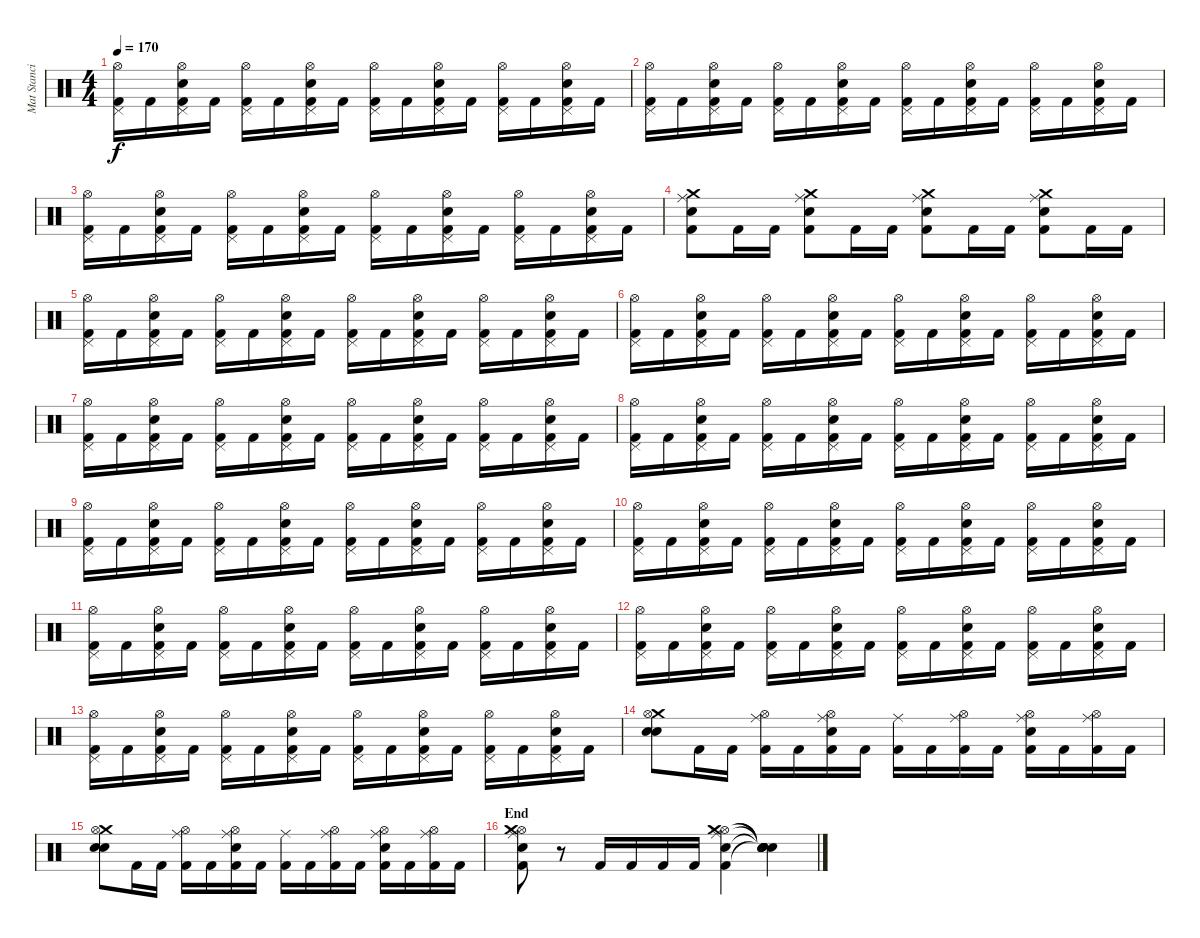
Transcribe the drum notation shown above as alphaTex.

\track ("Mat Stancioiu" "Mat Stanci") {instrument percussion}
\staff {score}
\articulation defaults
\ts (4 4)
\tempo 170
\clef neutral
\ks c
("Hi-Hat (open)" "Kick (hit) 2" "Pedal Hi-Hat (hit)").16{dy f} "Kick (hit) 2".16 ("Electric Snare (hit)" "Hi-Hat (open)" "Kick (hit) 2" "Pedal Hi-Hat (hit)").16 "Kick (hit) 2".16 ("Hi-Hat (open)" "Kick (hit) 2" "Pedal Hi-Hat (hit)").16 "Kick (hit) 2".16 ("Electric Snare (hit)" "Hi-Hat (open)" "Kick (hit) 2" "Pedal Hi-Hat (hit)").16 "Kick (hit) 2".16 ("Hi-Hat (open)" "Kick (hit) 2" "Pedal Hi-Hat (hit)").16 "Kick (hit) 2".16 ("Electric Snare (hit)" "Hi-Hat (open)" "Kick (hit) 2" "Pedal Hi-Hat (hit)").16 "Kick (hit) 2".16 ("Hi-Hat (open)" "Kick (hit) 2" "Pedal Hi-Hat (hit)").16 "Kick (hit) 2".16 ("Electric Snare (hit)" "Hi-Hat (open)" "Kick (hit) 2" "Pedal Hi-Hat (hit)").16 "Kick (hit) 2".16 |
("Hi-Hat (open)" "Kick (hit) 2" "Pedal Hi-Hat (hit)").16 "Kick (hit) 2".16 ("Electric Snare (hit)" "Hi-Hat (open)" "Kick (hit) 2" "Pedal Hi-Hat (hit)").16 "Kick (hit) 2".16 ("Hi-Hat (open)" "Kick (hit) 2" "Pedal Hi-Hat (hit)").16 "Kick (hit) 2".16 ("Electric Snare (hit)" "Hi-Hat (open)" "Kick (hit) 2" "Pedal Hi-Hat (hit)").16 "Kick (hit) 2".16 ("Hi-Hat (open)" "Kick (hit) 2" "Pedal Hi-Hat (hit)").16 "Kick (hit) 2".16 ("Electric Snare (hit)" "Hi-Hat (open)" "Kick (hit) 2" "Pedal Hi-Hat (hit)").16 "Kick (hit) 2".16 ("Hi-Hat (open)" "Kick (hit) 2" "Pedal Hi-Hat (hit)").16 "Kick (hit) 2".16 ("Electric Snare (hit)" "Hi-Hat (open)" "Kick (hit) 2" "Pedal Hi-Hat (hit)").16 "Kick (hit) 2".16 |
("Hi-Hat (open)" "Kick (hit) 2" "Pedal Hi-Hat (hit)").16 "Kick (hit) 2".16 ("Electric Snare (hit)" "Hi-Hat (open)" "Kick (hit) 2" "Pedal Hi-Hat (hit)").16 "Kick (hit) 2".16 ("Hi-Hat (open)" "Kick (hit) 2" "Pedal Hi-Hat (hit)").16 "Kick (hit) 2".16 ("Electric Snare (hit)" "Hi-Hat (open)" "Kick (hit) 2" "Pedal Hi-Hat (hit)").16 "Kick (hit) 2".16 ("Hi-Hat (open)" "Kick (hit) 2" "Pedal Hi-Hat (hit)").16 "Kick (hit) 2".16 ("Electric Snare (hit)" "Hi-Hat (open)" "Kick (hit) 2" "Pedal Hi-Hat (hit)").16 "Kick (hit) 2".16 ("Hi-Hat (open)" "Kick (hit) 2" "Pedal Hi-Hat (hit)").16 "Kick (hit) 2".16 ("Electric Snare (hit)" "Hi-Hat (open)" "Kick (hit) 2" "Pedal Hi-Hat (hit)").16 "Kick (hit) 2".16 |
("Electric Snare (hit)" "Kick (hit) 2" "Crash medium (hit)" "Ride (middle)").8 "Kick (hit) 2".16 "Kick (hit) 2".16 ("Electric Snare (hit)" "Kick (hit) 2" "Crash medium (hit)" "Ride (middle)").8 "Kick (hit) 2".16 "Kick (hit) 2".16 ("Electric Snare (hit)" "Kick (hit) 2" "Crash medium (hit)" "Ride (middle)").8 "Kick (hit) 2".16 "Kick (hit) 2".16 ("Electric Snare (hit)" "Kick (hit) 2" "Crash medium (hit)" "Ride (middle)").8 "Kick (hit) 2".16 "Kick (hit) 2".16 |
("Hi-Hat (open)" "Kick (hit) 2" "Pedal Hi-Hat (hit)").16 "Kick (hit) 2".16 ("Electric Snare (hit)" "Hi-Hat (open)" "Kick (hit) 2" "Pedal Hi-Hat (hit)").16 "Kick (hit) 2".16 ("Hi-Hat (open)" "Kick (hit) 2" "Pedal Hi-Hat (hit)").16 "Kick (hit) 2".16 ("Electric Snare (hit)" "Hi-Hat (open)" "Kick (hit) 2" "Pedal Hi-Hat (hit)").16 "Kick (hit) 2".16 ("Hi-Hat (open)" "Kick (hit) 2" "Pedal Hi-Hat (hit)").16 "Kick (hit) 2".16 ("Electric Snare (hit)" "Hi-Hat (open)" "Kick (hit) 2" "Pedal Hi-Hat (hit)").16 "Kick (hit) 2".16 ("Hi-Hat (open)" "Kick (hit) 2" "Pedal Hi-Hat (hit)").16 "Kick (hit) 2".16 ("Electric Snare (hit)" "Hi-Hat (open)" "Kick (hit) 2" "Pedal Hi-Hat (hit)").16 "Kick (hit) 2".16 |
("Hi-Hat (open)" "Kick (hit) 2" "Pedal Hi-Hat (hit)").16 "Kick (hit) 2".16 ("Electric Snare (hit)" "Hi-Hat (open)" "Kick (hit) 2" "Pedal Hi-Hat (hit)").16 "Kick (hit) 2".16 ("Hi-Hat (open)" "Kick (hit) 2" "Pedal Hi-Hat (hit)").16 "Kick (hit) 2".16 ("Electric Snare (hit)" "Hi-Hat (open)" "Kick (hit) 2" "Pedal Hi-Hat (hit)").16 "Kick (hit) 2".16 ("Hi-Hat (open)" "Kick (hit) 2" "Pedal Hi-Hat (hit)").16 "Kick (hit) 2".16 ("Electric Snare (hit)" "Hi-Hat (open)" "Kick (hit) 2" "Pedal Hi-Hat (hit)").16 "Kick (hit) 2".16 ("Hi-Hat (open)" "Kick (hit) 2" "Pedal Hi-Hat (hit)").16 "Kick (hit) 2".16 ("Electric Snare (hit)" "Hi-Hat (open)" "Kick (hit) 2" "Pedal Hi-Hat (hit)").16 "Kick (hit) 2".16 |
("Hi-Hat (open)" "Kick (hit) 2" "Pedal Hi-Hat (hit)").16 "Kick (hit) 2".16 ("Electric Snare (hit)" "Hi-Hat (open)" "Kick (hit) 2" "Pedal Hi-Hat (hit)").16 "Kick (hit) 2".16 ("Hi-Hat (open)" "Kick (hit) 2" "Pedal Hi-Hat (hit)").16 "Kick (hit) 2".16 ("Electric Snare (hit)" "Hi-Hat (open)" "Kick (hit) 2" "Pedal Hi-Hat (hit)").16 "Kick (hit) 2".16 ("Hi-Hat (open)" "Kick (hit) 2" "Pedal Hi-Hat (hit)").16 "Kick (hit) 2".16 ("Electric Snare (hit)" "Hi-Hat (open)" "Kick (hit) 2" "Pedal Hi-Hat (hit)").16 "Kick (hit) 2".16 ("Hi-Hat (open)" "Kick (hit) 2" "Pedal Hi-Hat (hit)").16 "Kick (hit) 2".16 ("Electric Snare (hit)" "Hi-Hat (open)" "Kick (hit) 2" "Pedal Hi-Hat (hit)").16 "Kick (hit) 2".16 |
("Hi-Hat (open)" "Kick (hit) 2" "Pedal Hi-Hat (hit)").16 "Kick (hit) 2".16 ("Electric Snare (hit)" "Hi-Hat (open)" "Kick (hit) 2" "Pedal Hi-Hat (hit)").16 "Kick (hit) 2".16 ("Hi-Hat (open)" "Kick (hit) 2" "Pedal Hi-Hat (hit)").16 "Kick (hit) 2".16 ("Electric Snare (hit)" "Hi-Hat (open)" "Kick (hit) 2" "Pedal Hi-Hat (hit)").16 "Kick (hit) 2".16 ("Hi-Hat (open)" "Kick (hit) 2" "Pedal Hi-Hat (hit)").16 "Kick (hit) 2".16 ("Electric Snare (hit)" "Hi-Hat (open)" "Kick (hit) 2" "Pedal Hi-Hat (hit)").16 "Kick (hit) 2".16 ("Hi-Hat (open)" "Kick (hit) 2" "Pedal Hi-Hat (hit)").16 "Kick (hit) 2".16 ("Electric Snare (hit)" "Hi-Hat (open)" "Kick (hit) 2" "Pedal Hi-Hat (hit)").16 "Kick (hit) 2".16 |
("Hi-Hat (open)" "Kick (hit) 2" "Pedal Hi-Hat (hit)").16 "Kick (hit) 2".16 ("Electric Snare (hit)" "Hi-Hat (open)" "Kick (hit) 2" "Pedal Hi-Hat (hit)").16 "Kick (hit) 2".16 ("Hi-Hat (open)" "Kick (hit) 2" "Pedal Hi-Hat (hit)").16 "Kick (hit) 2".16 ("Electric Snare (hit)" "Hi-Hat (open)" "Kick (hit) 2" "Pedal Hi-Hat (hit)").16 "Kick (hit) 2".16 ("Hi-Hat (open)" "Kick (hit) 2" "Pedal Hi-Hat (hit)").16 "Kick (hit) 2".16 ("Electric Snare (hit)" "Hi-Hat (open)" "Kick (hit) 2" "Pedal Hi-Hat (hit)").16 "Kick (hit) 2".16 ("Hi-Hat (open)" "Kick (hit) 2" "Pedal Hi-Hat (hit)").16 "Kick (hit) 2".16 ("Electric Snare (hit)" "Hi-Hat (open)" "Kick (hit) 2" "Pedal Hi-Hat (hit)").16 "Kick (hit) 2".16 |
("Hi-Hat (open)" "Kick (hit) 2" "Pedal Hi-Hat (hit)").16 "Kick (hit) 2".16 ("Electric Snare (hit)" "Hi-Hat (open)" "Kick (hit) 2" "Pedal Hi-Hat (hit)").16 "Kick (hit) 2".16 ("Hi-Hat (open)" "Kick (hit) 2" "Pedal Hi-Hat (hit)").16 "Kick (hit) 2".16 ("Electric Snare (hit)" "Hi-Hat (open)" "Kick (hit) 2" "Pedal Hi-Hat (hit)").16 "Kick (hit) 2".16 ("Hi-Hat (open)" "Kick (hit) 2" "Pedal Hi-Hat (hit)").16 "Kick (hit) 2".16 ("Electric Snare (hit)" "Hi-Hat (open)" "Kick (hit) 2" "Pedal Hi-Hat (hit)").16 "Kick (hit) 2".16 ("Hi-Hat (open)" "Kick (hit) 2" "Pedal Hi-Hat (hit)").16 "Kick (hit) 2".16 ("Electric Snare (hit)" "Hi-Hat (open)" "Kick (hit) 2" "Pedal Hi-Hat (hit)").16 "Kick (hit) 2".16 |
("Hi-Hat (open)" "Kick (hit) 2" "Pedal Hi-Hat (hit)").16 "Kick (hit) 2".16 ("Electric Snare (hit)" "Hi-Hat (open)" "Kick (hit) 2" "Pedal Hi-Hat (hit)").16 "Kick (hit) 2".16 ("Hi-Hat (open)" "Kick (hit) 2" "Pedal Hi-Hat (hit)").16 "Kick (hit) 2".16 ("Electric Snare (hit)" "Hi-Hat (open)" "Kick (hit) 2" "Pedal Hi-Hat (hit)").16 "Kick (hit) 2".16 ("Hi-Hat (open)" "Kick (hit) 2" "Pedal Hi-Hat (hit)").16 "Kick (hit) 2".16 ("Electric Snare (hit)" "Hi-Hat (open)" "Kick (hit) 2" "Pedal Hi-Hat (hit)").16 "Kick (hit) 2".16 ("Hi-Hat (open)" "Kick (hit) 2" "Pedal Hi-Hat (hit)").16 "Kick (hit) 2".16 ("Electric Snare (hit)" "Hi-Hat (open)" "Kick (hit) 2" "Pedal Hi-Hat (hit)").16 "Kick (hit) 2".16 |
("Hi-Hat (open)" "Kick (hit) 2" "Pedal Hi-Hat (hit)").16 "Kick (hit) 2".16 ("Electric Snare (hit)" "Hi-Hat (open)" "Kick (hit) 2" "Pedal Hi-Hat (hit)").16 "Kick (hit) 2".16 ("Hi-Hat (open)" "Kick (hit) 2" "Pedal Hi-Hat (hit)").16 "Kick (hit) 2".16 ("Electric Snare (hit)" "Hi-Hat (open)" "Kick (hit) 2" "Pedal Hi-Hat (hit)").16 "Kick (hit) 2".16 ("Hi-Hat (open)" "Kick (hit) 2" "Pedal Hi-Hat (hit)").16 "Kick (hit) 2".16 ("Electric Snare (hit)" "Hi-Hat (open)" "Kick (hit) 2" "Pedal Hi-Hat (hit)").16 "Kick (hit) 2".16 ("Hi-Hat (open)" "Kick (hit) 2" "Pedal Hi-Hat (hit)").16 "Kick (hit) 2".16 ("Electric Snare (hit)" "Hi-Hat (open)" "Kick (hit) 2" "Pedal Hi-Hat (hit)").16 "Kick (hit) 2".16 |
("Hi-Hat (open)" "Kick (hit) 2" "Pedal Hi-Hat (hit)").16 "Kick (hit) 2".16 ("Electric Snare (hit)" "Hi-Hat (open)" "Kick (hit) 2" "Pedal Hi-Hat (hit)").16 "Kick (hit) 2".16 ("Hi-Hat (open)" "Kick (hit) 2" "Pedal Hi-Hat (hit)").16 "Kick (hit) 2".16 ("Electric Snare (hit)" "Hi-Hat (open)" "Kick (hit) 2" "Pedal Hi-Hat (hit)").16 "Kick (hit) 2".16 ("Hi-Hat (open)" "Kick (hit) 2" "Pedal Hi-Hat (hit)").16 "Kick (hit) 2".16 ("Electric Snare (hit)" "Hi-Hat (open)" "Kick (hit) 2" "Pedal Hi-Hat (hit)").16 "Kick (hit) 2".16 ("Hi-Hat (open)" "Kick (hit) 2" "Pedal Hi-Hat (hit)").16 "Kick (hit) 2".16 ("Electric Snare (hit)" "Hi-Hat (open)" "Kick (hit) 2" "Pedal Hi-Hat (hit)").16 "Kick (hit) 2".16 |
("Crash medium (hit)" "Hi-Hat (open)" "Snare (hit)" "Electric Snare (hit)").8 "Kick (hit) 2".16 "Kick (hit) 2".16 ("Kick (hit) 2" "Hi-Hat (open)" "Ride (middle)").16 "Kick (hit) 2".16 ("Electric Snare (hit)" "Hi-Hat (open)" "Kick (hit) 2" "Ride (middle)").16 "Kick (hit) 2".16 ("Kick (hit) 2" "Ride (middle)").16 "Kick (hit) 2".16 ("Kick (hit) 2" "Hi-Hat (open)" "Ride (middle)").16 "Kick (hit) 2".16 ("Electric Snare (hit)" "Hi-Hat (open)" "Kick (hit) 2" "Ride (middle)").16 "Kick (hit) 2".16 ("Kick (hit) 2" "Hi-Hat (open)" "Ride (middle)").16 "Kick (hit) 2".16 |
("Crash medium (hit)" "Hi-Hat (open)" "Snare (hit)" "Electric Snare (hit)").8 "Kick (hit) 2".16 "Kick (hit) 2".16 ("Kick (hit) 2" "Hi-Hat (open)" "Ride (middle)").16 "Kick (hit) 2".16 ("Electric Snare (hit)" "Hi-Hat (open)" "Kick (hit) 2" "Ride (middle)").16 "Kick (hit) 2".16 ("Kick (hit) 2" "Ride (middle)").16 "Kick (hit) 2".16 ("Kick (hit) 2" "Hi-Hat (open)" "Ride (middle)").16 "Kick (hit) 2".16 ("Electric Snare (hit)" "Hi-Hat (open)" "Kick (hit) 2" "Ride (middle)").16 "Kick (hit) 2".16 ("Kick (hit) 2" "Hi-Hat (open)" "Ride (middle)").16 "Kick (hit) 2".16 |
\section ("" "End")
("Electric Snare (hit)" "Hi-Hat (open)" "Kick (hit) 2" "Crash medium (hit)" "Ride (middle)").8 r.8 "Kick (hit) 2".16 "Kick (hit) 2".16 "Kick (hit) 2".16 "Kick (hit) 2".16 ("Electric Snare (hit)" "Hi-Hat (open)" "Kick (hit) 2" "Crash medium (hit)" "Ride (middle)").4 ("Snare (hit)"{t} "Snare (hit)"{t} "Snare (hit)"{t} "Snare (hit)"{t} "Snare (hit)"{t}).4
